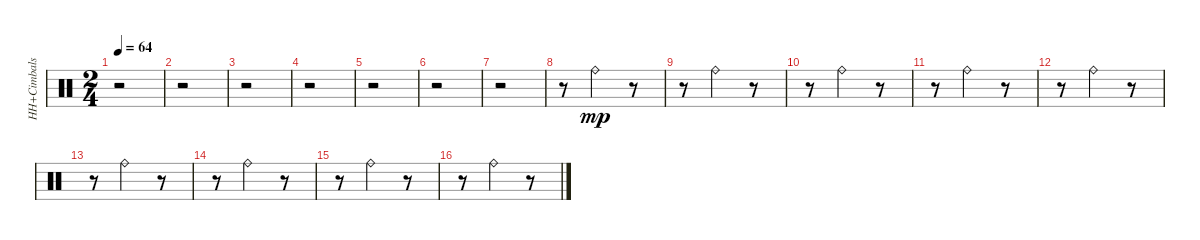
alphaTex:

\track ("HH+Cimbals" "HH+Cimbals") {instrument percussion}
\staff {score}
\articulation defaults
\ts (2 4)
\tempo 64
\clef neutral
\ks c
r.2{dy mp} |
r.2 |
r.2 |
r.2 |
r.2 |
r.2 |
r.2 |
r.8 "Ride (bell)".4 r.8 |
r.8 "Ride (bell)".4 r.8 |
r.8 "Ride (bell)".4 r.8 |
r.8 "Ride (bell)".4 r.8 |
r.8 "Ride (bell)".4 r.8 |
r.8 "Ride (bell)".4 r.8 |
r.8 "Ride (bell)".4 r.8 |
r.8 "Ride (bell)".4 r.8 |
r.8 "Ride (bell)".4 r.8
